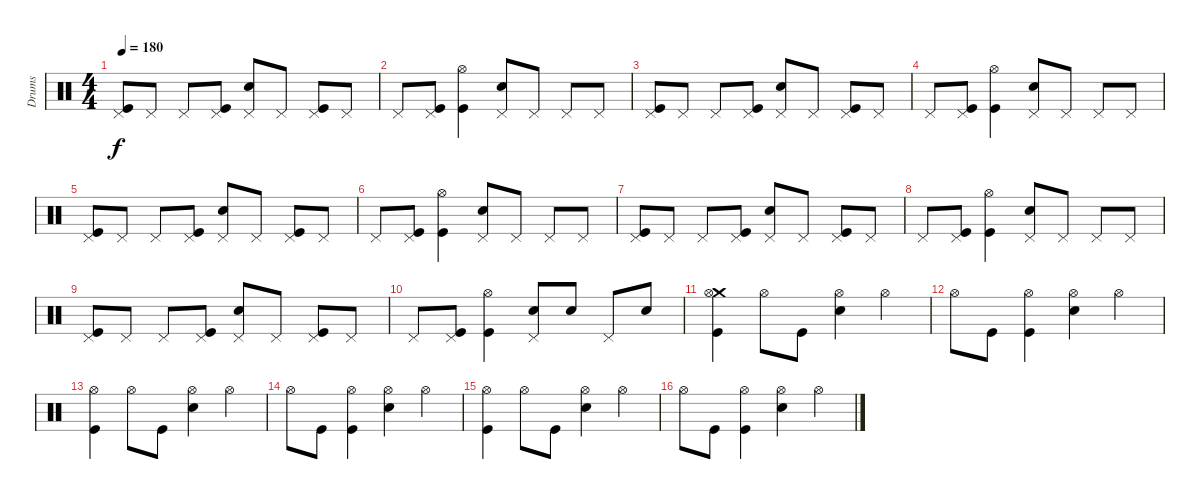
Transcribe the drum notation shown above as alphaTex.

\track ("Drums" "Drums") {instrument percussion}
\staff {score}
\articulation defaults
\ts (4 4)
\tempo 180
\clef neutral
\ks c
("Pedal Hi-Hat (hit)" "Kick (hit)").8{dy f} "Pedal Hi-Hat (hit)".8 "Pedal Hi-Hat (hit)".8 ("Pedal Hi-Hat (hit)" "Kick (hit)").8 ("Pedal Hi-Hat (hit)" "Electric Snare (hit)").8 "Pedal Hi-Hat (hit)".8 ("Pedal Hi-Hat (hit)" "Kick (hit)").8 "Pedal Hi-Hat (hit)".8 |
"Pedal Hi-Hat (hit)".8 ("Pedal Hi-Hat (hit)" "Kick (hit)").8 ("Hi-Hat (open)" "Kick (hit)").4 ("Pedal Hi-Hat (hit)" "Electric Snare (hit)").8 "Pedal Hi-Hat (hit)".8 "Pedal Hi-Hat (hit)".8 "Pedal Hi-Hat (hit)".8 |
("Pedal Hi-Hat (hit)" "Kick (hit)").8 "Pedal Hi-Hat (hit)".8 "Pedal Hi-Hat (hit)".8 ("Pedal Hi-Hat (hit)" "Kick (hit)").8 ("Pedal Hi-Hat (hit)" "Electric Snare (hit)").8 "Pedal Hi-Hat (hit)".8 ("Pedal Hi-Hat (hit)" "Kick (hit)").8 "Pedal Hi-Hat (hit)".8 |
"Pedal Hi-Hat (hit)".8 ("Pedal Hi-Hat (hit)" "Kick (hit)").8 ("Hi-Hat (open)" "Kick (hit)").4 ("Pedal Hi-Hat (hit)" "Electric Snare (hit)").8 "Pedal Hi-Hat (hit)".8 "Pedal Hi-Hat (hit)".8 "Pedal Hi-Hat (hit)".8 |
("Pedal Hi-Hat (hit)" "Kick (hit)").8 "Pedal Hi-Hat (hit)".8 "Pedal Hi-Hat (hit)".8 ("Pedal Hi-Hat (hit)" "Kick (hit)").8 ("Pedal Hi-Hat (hit)" "Electric Snare (hit)").8 "Pedal Hi-Hat (hit)".8 ("Pedal Hi-Hat (hit)" "Kick (hit)").8 "Pedal Hi-Hat (hit)".8 |
"Pedal Hi-Hat (hit)".8 ("Pedal Hi-Hat (hit)" "Kick (hit)").8 ("Hi-Hat (open)" "Kick (hit)").4 ("Pedal Hi-Hat (hit)" "Electric Snare (hit)").8 "Pedal Hi-Hat (hit)".8 "Pedal Hi-Hat (hit)".8 "Pedal Hi-Hat (hit)".8 |
("Pedal Hi-Hat (hit)" "Kick (hit)").8 "Pedal Hi-Hat (hit)".8 "Pedal Hi-Hat (hit)".8 ("Pedal Hi-Hat (hit)" "Kick (hit)").8 ("Pedal Hi-Hat (hit)" "Electric Snare (hit)").8 "Pedal Hi-Hat (hit)".8 ("Pedal Hi-Hat (hit)" "Kick (hit)").8 "Pedal Hi-Hat (hit)".8 |
"Pedal Hi-Hat (hit)".8 ("Pedal Hi-Hat (hit)" "Kick (hit)").8 ("Hi-Hat (open)" "Kick (hit)").4 ("Pedal Hi-Hat (hit)" "Electric Snare (hit)").8 "Pedal Hi-Hat (hit)".8 "Pedal Hi-Hat (hit)".8 "Pedal Hi-Hat (hit)".8 |
("Pedal Hi-Hat (hit)" "Kick (hit)").8 "Pedal Hi-Hat (hit)".8 "Pedal Hi-Hat (hit)".8 ("Pedal Hi-Hat (hit)" "Kick (hit)").8 ("Pedal Hi-Hat (hit)" "Electric Snare (hit)").8 "Pedal Hi-Hat (hit)".8 ("Pedal Hi-Hat (hit)" "Kick (hit)").8 "Pedal Hi-Hat (hit)".8 |
"Pedal Hi-Hat (hit)".8 ("Pedal Hi-Hat (hit)" "Kick (hit)").8 ("Hi-Hat (open)" "Kick (hit)").4 ("Pedal Hi-Hat (hit)" "Electric Snare (hit)").8 "Electric Snare (hit)".8 "Pedal Hi-Hat (hit)".8 "Electric Snare (hit)".8 |
("Crash medium (hit)" "Hi-Hat (open)" "Kick (hit)").4 "Hi-Hat (open)".8 "Kick (hit)".8 ("Hi-Hat (open)" "Electric Snare (hit)").4 "Hi-Hat (open)".4 |
"Hi-Hat (open)".8 "Kick (hit)".8 ("Hi-Hat (open)" "Kick (hit)").4 ("Hi-Hat (open)" "Electric Snare (hit)").4 "Hi-Hat (open)".4 |
("Hi-Hat (open)" "Kick (hit)").4 "Hi-Hat (open)".8 "Kick (hit)".8 ("Hi-Hat (open)" "Electric Snare (hit)").4 "Hi-Hat (open)".4 |
"Hi-Hat (open)".8 "Kick (hit)".8 ("Hi-Hat (open)" "Kick (hit)").4 ("Hi-Hat (open)" "Electric Snare (hit)").4 "Hi-Hat (open)".4 |
("Hi-Hat (open)" "Kick (hit)").4 "Hi-Hat (open)".8 "Kick (hit)".8 ("Hi-Hat (open)" "Electric Snare (hit)").4 "Hi-Hat (open)".4 |
"Hi-Hat (open)".8 "Kick (hit)".8 ("Hi-Hat (open)" "Kick (hit)").4 ("Hi-Hat (open)" "Electric Snare (hit)").4 "Hi-Hat (open)".4
